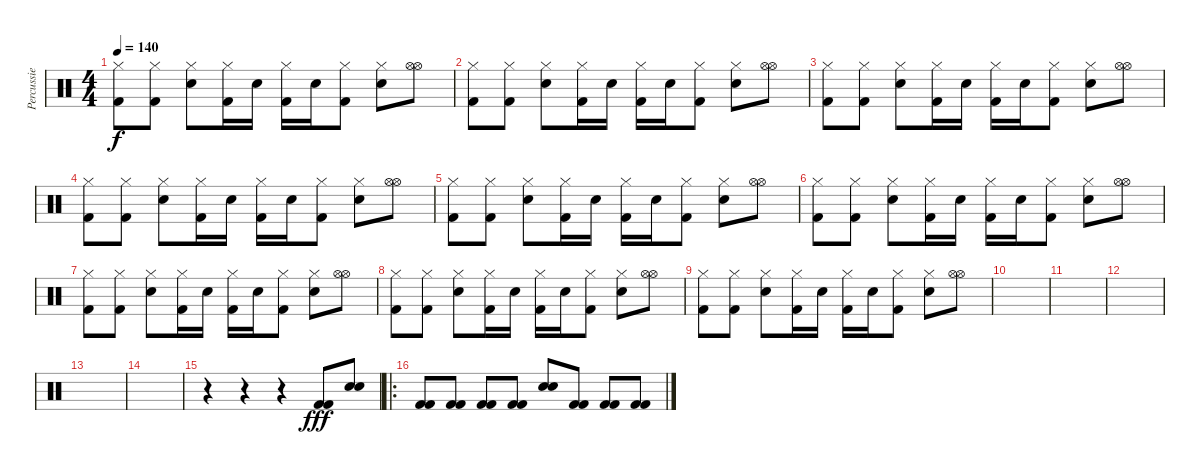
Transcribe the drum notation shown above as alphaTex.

\track ("Percussie" "Percussie") {instrument percussion}
\staff {score}
\articulation defaults
\ts (4 4)
\tempo 140
\clef neutral
\ks c
("Hi-Hat (closed)" "Kick (hit) 2").8{dy f} ("Hi-Hat (closed)" "Kick (hit) 2").8 ("Hi-Hat (closed)" "Snare (hit) 2").8 ("Hi-Hat (closed)" "Kick (hit) 2").16 "Snare (hit) 2".16 ("Hi-Hat (closed)" "Kick (hit) 2").16 "Snare (hit) 2".16 ("Hi-Hat (closed)" "Kick (hit) 2").8 ("Hi-Hat (closed)" "Snare (hit) 2").8 ("Hi-Hat (open)" "Hi-Hat (open)").8 |
("Hi-Hat (closed)" "Kick (hit) 2").8 ("Hi-Hat (closed)" "Kick (hit) 2").8 ("Hi-Hat (closed)" "Snare (hit) 2").8 ("Hi-Hat (closed)" "Kick (hit) 2").16 "Snare (hit) 2".16 ("Hi-Hat (closed)" "Kick (hit) 2").16 "Snare (hit) 2".16 ("Hi-Hat (closed)" "Kick (hit) 2").8 ("Hi-Hat (closed)" "Snare (hit) 2").8 ("Hi-Hat (open)" "Hi-Hat (open)").8 |
("Hi-Hat (closed)" "Kick (hit) 2").8 ("Hi-Hat (closed)" "Kick (hit) 2").8 ("Hi-Hat (closed)" "Snare (hit) 2").8 ("Hi-Hat (closed)" "Kick (hit) 2").16 "Snare (hit) 2".16 ("Hi-Hat (closed)" "Kick (hit) 2").16 "Snare (hit) 2".16 ("Hi-Hat (closed)" "Kick (hit) 2").8 ("Hi-Hat (closed)" "Snare (hit) 2").8 ("Hi-Hat (open)" "Hi-Hat (open)").8 |
("Hi-Hat (closed)" "Kick (hit) 2").8 ("Hi-Hat (closed)" "Kick (hit) 2").8 ("Hi-Hat (closed)" "Snare (hit) 2").8 ("Hi-Hat (closed)" "Kick (hit) 2").16 "Snare (hit) 2".16 ("Hi-Hat (closed)" "Kick (hit) 2").16 "Snare (hit) 2".16 ("Hi-Hat (closed)" "Kick (hit) 2").8 ("Hi-Hat (closed)" "Snare (hit) 2").8 ("Hi-Hat (open)" "Hi-Hat (open)").8 |
("Hi-Hat (closed)" "Kick (hit) 2").8 ("Hi-Hat (closed)" "Kick (hit) 2").8 ("Hi-Hat (closed)" "Snare (hit) 2").8 ("Hi-Hat (closed)" "Kick (hit) 2").16 "Snare (hit) 2".16 ("Hi-Hat (closed)" "Kick (hit) 2").16 "Snare (hit) 2".16 ("Hi-Hat (closed)" "Kick (hit) 2").8 ("Hi-Hat (closed)" "Snare (hit) 2").8 ("Hi-Hat (open)" "Hi-Hat (open)").8 |
("Hi-Hat (closed)" "Kick (hit) 2").8 ("Hi-Hat (closed)" "Kick (hit) 2").8 ("Hi-Hat (closed)" "Snare (hit) 2").8 ("Hi-Hat (closed)" "Kick (hit) 2").16 "Snare (hit) 2".16 ("Hi-Hat (closed)" "Kick (hit) 2").16 "Snare (hit) 2".16 ("Hi-Hat (closed)" "Kick (hit) 2").8 ("Hi-Hat (closed)" "Snare (hit) 2").8 ("Hi-Hat (open)" "Hi-Hat (open)").8 |
("Hi-Hat (closed)" "Kick (hit) 2").8 ("Hi-Hat (closed)" "Kick (hit) 2").8 ("Hi-Hat (closed)" "Snare (hit) 2").8 ("Hi-Hat (closed)" "Kick (hit) 2").16 "Snare (hit) 2".16 ("Hi-Hat (closed)" "Kick (hit) 2").16 "Snare (hit) 2".16 ("Hi-Hat (closed)" "Kick (hit) 2").8 ("Hi-Hat (closed)" "Snare (hit) 2").8 ("Hi-Hat (open)" "Hi-Hat (open)").8 |
("Hi-Hat (closed)" "Kick (hit) 2").8 ("Hi-Hat (closed)" "Kick (hit) 2").8 ("Hi-Hat (closed)" "Snare (hit) 2").8 ("Hi-Hat (closed)" "Kick (hit) 2").16 "Snare (hit) 2".16 ("Hi-Hat (closed)" "Kick (hit) 2").16 "Snare (hit) 2".16 ("Hi-Hat (closed)" "Kick (hit) 2").8 ("Hi-Hat (closed)" "Snare (hit) 2").8 ("Hi-Hat (open)" "Hi-Hat (open)").8 |
("Hi-Hat (closed)" "Kick (hit) 2").8 ("Hi-Hat (closed)" "Kick (hit) 2").8 ("Hi-Hat (closed)" "Snare (hit) 2").8 ("Hi-Hat (closed)" "Kick (hit) 2").16 "Snare (hit) 2".16 ("Hi-Hat (closed)" "Kick (hit) 2").16 "Snare (hit) 2".16 ("Hi-Hat (closed)" "Kick (hit) 2").8 ("Hi-Hat (closed)" "Snare (hit) 2").8 ("Hi-Hat (open)" "Hi-Hat (open)").8 |
|
|
|
|
|
r.4 r.4 r.4 ("Kick (hit) 2" "Kick (hit) 2").8{dy fff} ("Snare (hit) 2" "Snare (hit) 2").8{bd 480} |
\ro
("Kick (hit) 2" "Kick (hit) 2").8 ("Kick (hit) 2" "Kick (hit) 2").8 ("Kick (hit) 2" "Kick (hit) 2").8 ("Kick (hit) 2" "Kick (hit) 2").8 ("Snare (hit) 2" "Snare (hit) 2").8{bd 480} ("Kick (hit) 2" "Kick (hit) 2").8 ("Kick (hit) 2" "Kick (hit) 2").8 ("Kick (hit) 2" "Kick (hit) 2").8
